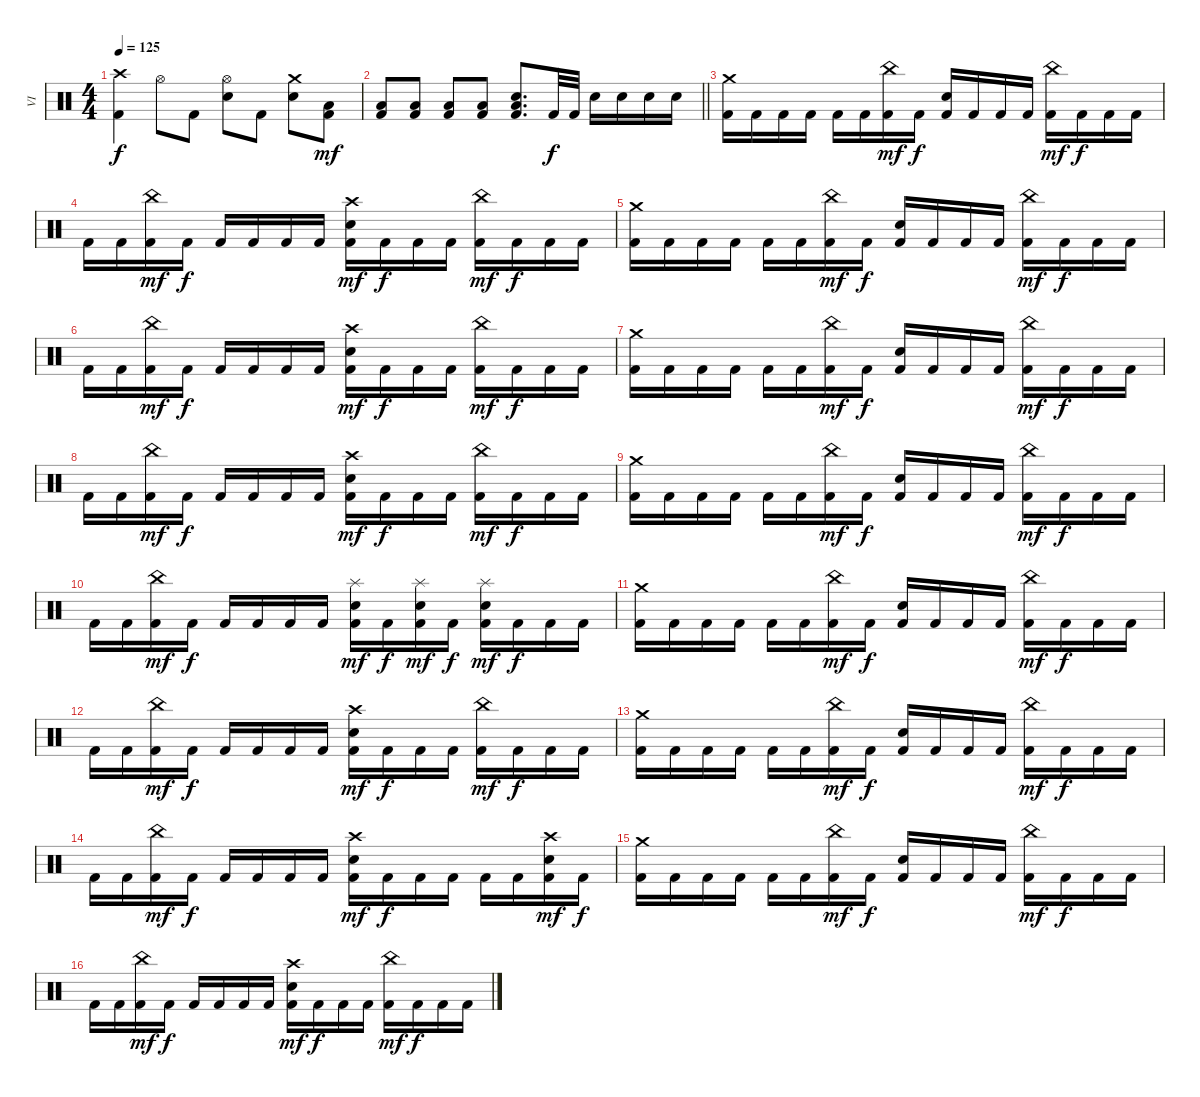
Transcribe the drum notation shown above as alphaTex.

\track ("VI" "VI") {instrument percussion}
\staff {score}
\articulation defaults
\ts (4 4)
\tempo 125
\clef neutral
\ks c
("Crash high (hit)" "Kick (hit) 2").4{dy f} "Hi-Hat (open)".8 "Kick (hit) 2".8 ("Hi-Hat (open)" "Electric Snare (hit)").8 "Kick (hit) 2".8 ("Crash medium (hit)" "Electric Snare (hit)").8 ("Low Floor Tom (hit)" "Kick (hit) 2").8{dy mf} |
\barLineRight lightlight
("Low Floor Tom (hit)" "Kick (hit) 2").8 ("Low Floor Tom (hit)" "Kick (hit) 2").8 ("Low Floor Tom (hit)" "Kick (hit) 2").8 ("Low Floor Tom (hit)" "Kick (hit) 2").8 ("Electric Snare (hit)" "Low Floor Tom (hit)" "Kick (hit) 2").8{d} "Kick (hit) 2".32{dy f} "Kick (hit) 2".32 "Electric Snare (hit)".16 "Electric Snare (hit)".16 "Electric Snare (hit)".16 "Electric Snare (hit)".16 |
\section ("" "")
("Crash medium (hit)" "Kick (hit) 2").16 "Kick (hit) 2".16 "Kick (hit) 2".16 "Kick (hit) 2".16 "Kick (hit) 2".16 "Kick (hit) 2".16 ("China (hit)" "Kick (hit) 2").16{dy mf} "Kick (hit) 2".16{dy f} ("Electric Snare (hit)" "Kick (hit) 2").16 "Kick (hit) 2".16 "Kick (hit) 2".16 "Kick (hit) 2".16 ("China (hit)" "Kick (hit) 2").16{dy mf} "Kick (hit) 2".16{dy f} "Kick (hit) 2".16 "Kick (hit) 2".16 |
"Kick (hit) 2".16 "Kick (hit) 2".16 ("China (hit)" "Kick (hit) 2").16{dy mf} "Kick (hit) 2".16{dy f} "Kick (hit) 2".16 "Kick (hit) 2".16 "Kick (hit) 2".16 "Kick (hit) 2".16 ("Crash high (hit)" "Electric Snare (hit)" "Kick (hit) 2").16{dy mf} "Kick (hit) 2".16{dy f} "Kick (hit) 2".16 "Kick (hit) 2".16 ("China (hit)" "Kick (hit) 2").16{dy mf} "Kick (hit) 2".16{dy f} "Kick (hit) 2".16 "Kick (hit) 2".16 |
("Crash medium (hit)" "Kick (hit) 2").16 "Kick (hit) 2".16 "Kick (hit) 2".16 "Kick (hit) 2".16 "Kick (hit) 2".16 "Kick (hit) 2".16 ("China (hit)" "Kick (hit) 2").16{dy mf} "Kick (hit) 2".16{dy f} ("Electric Snare (hit)" "Kick (hit) 2").16 "Kick (hit) 2".16 "Kick (hit) 2".16 "Kick (hit) 2".16 ("China (hit)" "Kick (hit) 2").16{dy mf} "Kick (hit) 2".16{dy f} "Kick (hit) 2".16 "Kick (hit) 2".16 |
"Kick (hit) 2".16 "Kick (hit) 2".16 ("China (hit)" "Kick (hit) 2").16{dy mf} "Kick (hit) 2".16{dy f} "Kick (hit) 2".16 "Kick (hit) 2".16 "Kick (hit) 2".16 "Kick (hit) 2".16 ("Crash high (hit)" "Electric Snare (hit)" "Kick (hit) 2").16{dy mf} "Kick (hit) 2".16{dy f} "Kick (hit) 2".16 "Kick (hit) 2".16 ("China (hit)" "Kick (hit) 2").16{dy mf} "Kick (hit) 2".16{dy f} "Kick (hit) 2".16 "Kick (hit) 2".16 |
("Crash medium (hit)" "Kick (hit) 2").16 "Kick (hit) 2".16 "Kick (hit) 2".16 "Kick (hit) 2".16 "Kick (hit) 2".16 "Kick (hit) 2".16 ("China (hit)" "Kick (hit) 2").16{dy mf} "Kick (hit) 2".16{dy f} ("Electric Snare (hit)" "Kick (hit) 2").16 "Kick (hit) 2".16 "Kick (hit) 2".16 "Kick (hit) 2".16 ("China (hit)" "Kick (hit) 2").16{dy mf} "Kick (hit) 2".16{dy f} "Kick (hit) 2".16 "Kick (hit) 2".16 |
"Kick (hit) 2".16 "Kick (hit) 2".16 ("China (hit)" "Kick (hit) 2").16{dy mf} "Kick (hit) 2".16{dy f} "Kick (hit) 2".16 "Kick (hit) 2".16 "Kick (hit) 2".16 "Kick (hit) 2".16 ("Crash high (hit)" "Electric Snare (hit)" "Kick (hit) 2").16{dy mf} "Kick (hit) 2".16{dy f} "Kick (hit) 2".16 "Kick (hit) 2".16 ("China (hit)" "Kick (hit) 2").16{dy mf} "Kick (hit) 2".16{dy f} "Kick (hit) 2".16 "Kick (hit) 2".16 |
("Crash medium (hit)" "Kick (hit) 2").16 "Kick (hit) 2".16 "Kick (hit) 2".16 "Kick (hit) 2".16 "Kick (hit) 2".16 "Kick (hit) 2".16 ("China (hit)" "Kick (hit) 2").16{dy mf} "Kick (hit) 2".16{dy f} ("Electric Snare (hit)" "Kick (hit) 2").16 "Kick (hit) 2".16 "Kick (hit) 2".16 "Kick (hit) 2".16 ("China (hit)" "Kick (hit) 2").16{dy mf} "Kick (hit) 2".16{dy f} "Kick (hit) 2".16 "Kick (hit) 2".16 |
"Kick (hit) 2".16 "Kick (hit) 2".16 ("China (hit)" "Kick (hit) 2").16{dy mf} "Kick (hit) 2".16{dy f} "Kick (hit) 2".16 "Kick (hit) 2".16 "Kick (hit) 2".16 "Kick (hit) 2".16 ("Splash (hit)" "Electric Snare (hit)" "Kick (hit) 2").16{dy mf} "Kick (hit) 2".16{dy f} ("Splash (hit)" "Electric Snare (hit)" "Kick (hit) 2").16{dy mf} "Kick (hit) 2".16{dy f} ("Splash (hit)" "Electric Snare (hit)" "Kick (hit) 2").16{dy mf} "Kick (hit) 2".16{dy f} "Kick (hit) 2".16 "Kick (hit) 2".16 |
("Crash medium (hit)" "Kick (hit) 2").16 "Kick (hit) 2".16 "Kick (hit) 2".16 "Kick (hit) 2".16 "Kick (hit) 2".16 "Kick (hit) 2".16 ("China (hit)" "Kick (hit) 2").16{dy mf} "Kick (hit) 2".16{dy f} ("Electric Snare (hit)" "Kick (hit) 2").16 "Kick (hit) 2".16 "Kick (hit) 2".16 "Kick (hit) 2".16 ("China (hit)" "Kick (hit) 2").16{dy mf} "Kick (hit) 2".16{dy f} "Kick (hit) 2".16 "Kick (hit) 2".16 |
"Kick (hit) 2".16 "Kick (hit) 2".16 ("China (hit)" "Kick (hit) 2").16{dy mf} "Kick (hit) 2".16{dy f} "Kick (hit) 2".16 "Kick (hit) 2".16 "Kick (hit) 2".16 "Kick (hit) 2".16 ("Crash high (hit)" "Electric Snare (hit)" "Kick (hit) 2").16{dy mf} "Kick (hit) 2".16{dy f} "Kick (hit) 2".16 "Kick (hit) 2".16 ("China (hit)" "Kick (hit) 2").16{dy mf} "Kick (hit) 2".16{dy f} "Kick (hit) 2".16 "Kick (hit) 2".16 |
("Crash medium (hit)" "Kick (hit) 2").16 "Kick (hit) 2".16 "Kick (hit) 2".16 "Kick (hit) 2".16 "Kick (hit) 2".16 "Kick (hit) 2".16 ("China (hit)" "Kick (hit) 2").16{dy mf} "Kick (hit) 2".16{dy f} ("Electric Snare (hit)" "Kick (hit) 2").16 "Kick (hit) 2".16 "Kick (hit) 2".16 "Kick (hit) 2".16 ("China (hit)" "Kick (hit) 2").16{dy mf} "Kick (hit) 2".16{dy f} "Kick (hit) 2".16 "Kick (hit) 2".16 |
"Kick (hit) 2".16 "Kick (hit) 2".16 ("China (hit)" "Kick (hit) 2").16{dy mf} "Kick (hit) 2".16{dy f} "Kick (hit) 2".16 "Kick (hit) 2".16 "Kick (hit) 2".16 "Kick (hit) 2".16 ("Crash high (hit)" "Electric Snare (hit)" "Kick (hit) 2").16{dy mf} "Kick (hit) 2".16{dy f} "Kick (hit) 2".16 "Kick (hit) 2".16 "Kick (hit) 2".16 "Kick (hit) 2".16 ("Crash high (hit)" "Electric Snare (hit)" "Kick (hit) 2").16{dy mf} "Kick (hit) 2".16{dy f} |
("Crash medium (hit)" "Kick (hit) 2").16 "Kick (hit) 2".16 "Kick (hit) 2".16 "Kick (hit) 2".16 "Kick (hit) 2".16 "Kick (hit) 2".16 ("China (hit)" "Kick (hit) 2").16{dy mf} "Kick (hit) 2".16{dy f} ("Electric Snare (hit)" "Kick (hit) 2").16 "Kick (hit) 2".16 "Kick (hit) 2".16 "Kick (hit) 2".16 ("China (hit)" "Kick (hit) 2").16{dy mf} "Kick (hit) 2".16{dy f} "Kick (hit) 2".16 "Kick (hit) 2".16 |
"Kick (hit) 2".16 "Kick (hit) 2".16 ("China (hit)" "Kick (hit) 2").16{dy mf} "Kick (hit) 2".16{dy f} "Kick (hit) 2".16 "Kick (hit) 2".16 "Kick (hit) 2".16 "Kick (hit) 2".16 ("Crash high (hit)" "Electric Snare (hit)" "Kick (hit) 2").16{dy mf} "Kick (hit) 2".16{dy f} "Kick (hit) 2".16 "Kick (hit) 2".16 ("China (hit)" "Kick (hit) 2").16{dy mf} "Kick (hit) 2".16{dy f} "Kick (hit) 2".16 "Kick (hit) 2".16
